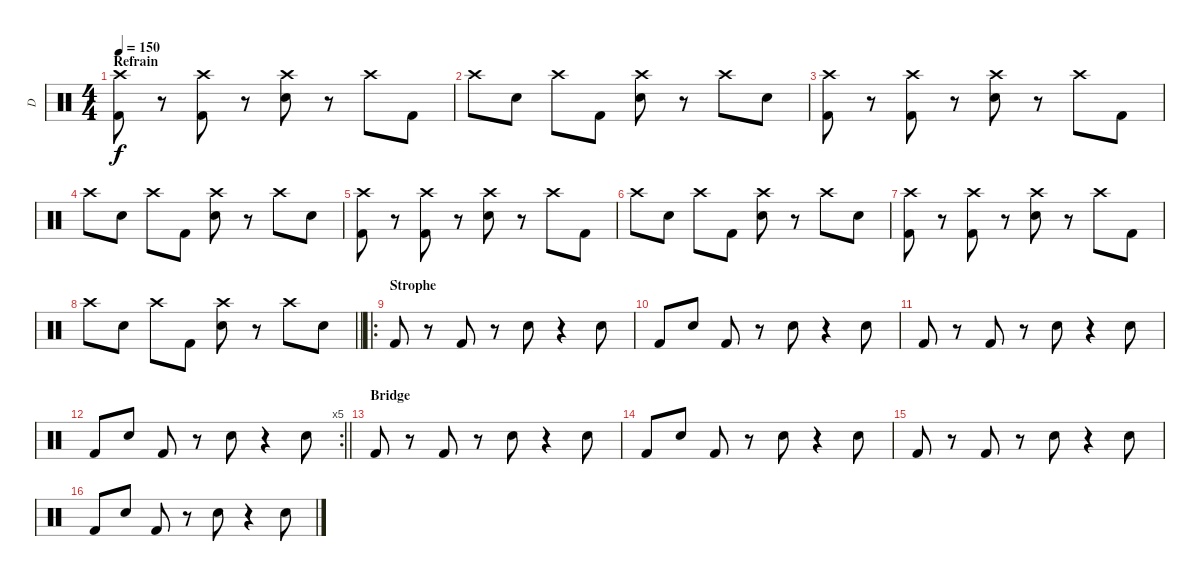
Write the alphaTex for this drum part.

\track ("D" "D") {instrument percussion}
\staff {score}
\articulation defaults
\ts (4 4)
\section ("" "Refrain")
\tempo 150
\clef neutral
\ks c
("Crash high (hit)" "Kick (hit) 2").8{dy f} r.8 ("Crash high (hit)" "Kick (hit) 2").8 r.8 ("Crash high (hit)" "Snare (hit) 2").8 r.8 "Crash high (hit)".8 "Kick (hit) 2".8 |
"Crash high (hit)".8 "Snare (hit) 2".8 "Crash high (hit)".8 "Kick (hit) 2".8 ("Crash high (hit)" "Snare (hit) 2").8 r.8 "Crash high (hit)".8 "Snare (hit) 2".8 |
("Crash high (hit)" "Kick (hit) 2").8 r.8 ("Crash high (hit)" "Kick (hit) 2").8 r.8 ("Crash high (hit)" "Snare (hit) 2").8 r.8 "Crash high (hit)".8 "Kick (hit) 2".8 |
"Crash high (hit)".8 "Snare (hit) 2".8 "Crash high (hit)".8 "Kick (hit) 2".8 ("Crash high (hit)" "Snare (hit) 2").8 r.8 "Crash high (hit)".8 "Snare (hit) 2".8 |
("Crash high (hit)" "Kick (hit) 2").8 r.8 ("Crash high (hit)" "Kick (hit) 2").8 r.8 ("Crash high (hit)" "Snare (hit) 2").8 r.8 "Crash high (hit)".8 "Kick (hit) 2".8 |
"Crash high (hit)".8 "Snare (hit) 2".8 "Crash high (hit)".8 "Kick (hit) 2".8 ("Crash high (hit)" "Snare (hit) 2").8 r.8 "Crash high (hit)".8 "Snare (hit) 2".8 |
("Crash high (hit)" "Kick (hit) 2").8 r.8 ("Crash high (hit)" "Kick (hit) 2").8 r.8 ("Crash high (hit)" "Snare (hit) 2").8 r.8 "Crash high (hit)".8 "Kick (hit) 2".8 |
\barLineRight lightlight "Crash high (hit)".8 "Snare (hit) 2".8 "Crash high (hit)".8 "Kick (hit) 2".8
("Crash high (hit)" "Snare (hit) 2").8 r.8 "Crash high (hit)".8 "Snare (hit) 2".8 |
\ro
\section ("" "Strophe")
"Kick (hit) 2".8 r.8 "Kick (hit) 2".8 r.8 "Snare (hit) 2".8 r.4 "Snare (hit) 2".8 |
"Kick (hit) 2".8 "Snare (hit) 2".8 "Kick (hit) 2".8 r.8 "Snare (hit) 2".8 r.4 "Snare (hit) 2".8 |
"Kick (hit) 2".8 r.8 "Kick (hit) 2".8 r.8 "Snare (hit) 2".8 r.4 "Snare (hit) 2".8 |
\rc 5
\barLineRight lightlight "Kick (hit) 2".8 "Snare (hit) 2".8 "Kick (hit) 2".8
r.8 "Snare (hit) 2".8 r.4 "Snare (hit) 2".8 |
\section ("" "Bridge")
"Kick (hit) 2".8 r.8 "Kick (hit) 2".8 r.8 "Snare (hit) 2".8 r.4 "Snare (hit) 2".8 |
"Kick (hit) 2".8 "Snare (hit) 2".8 "Kick (hit) 2".8 r.8 "Snare (hit) 2".8 r.4 "Snare (hit) 2".8 |
"Kick (hit) 2".8 r.8 "Kick (hit) 2".8 r.8 "Snare (hit) 2".8 r.4 "Snare (hit) 2".8 |
"Kick (hit) 2".8 "Snare (hit) 2".8 "Kick (hit) 2".8 r.8 "Snare (hit) 2".8 r.4 "Snare (hit) 2".8
